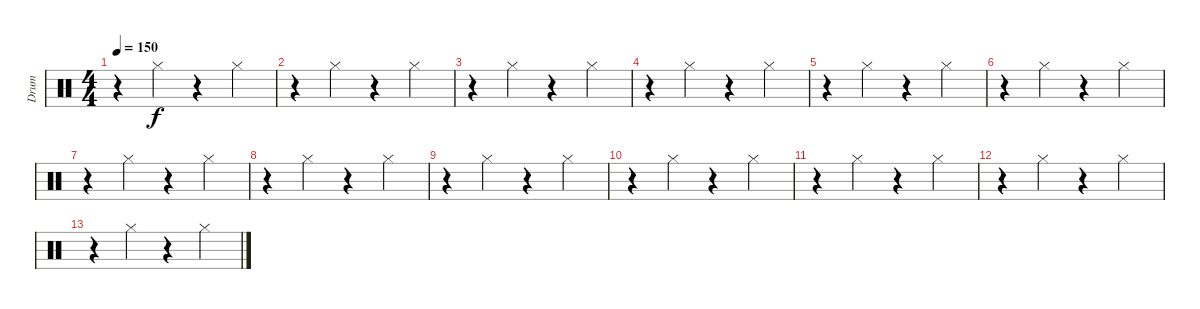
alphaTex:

\track ("Drum" "Drum") {instrument percussion}
\staff {score}
\articulation defaults
\ts (4 4)
\tempo 150
\clef neutral
\ks c
r.4{dy f} "Hi-Hat (closed)".4 r.4 "Hi-Hat (closed)".4 |
r.4 "Hi-Hat (closed)".4 r.4 "Hi-Hat (closed)".4 |
r.4 "Hi-Hat (closed)".4 r.4 "Hi-Hat (closed)".4 |
r.4 "Hi-Hat (closed)".4 r.4 "Hi-Hat (closed)".4 |
r.4 "Hi-Hat (closed)".4 r.4 "Hi-Hat (closed)".4 |
r.4 "Hi-Hat (closed)".4 r.4 "Hi-Hat (closed)".4 |
r.4 "Hi-Hat (closed)".4 r.4 "Hi-Hat (closed)".4 |
r.4 "Hi-Hat (closed)".4 r.4 "Hi-Hat (closed)".4 |
r.4 "Hi-Hat (closed)".4 r.4 "Hi-Hat (closed)".4 |
r.4 "Hi-Hat (closed)".4 r.4 "Hi-Hat (closed)".4 |
r.4 "Hi-Hat (closed)".4 r.4 "Hi-Hat (closed)".4 |
r.4 "Hi-Hat (closed)".4 r.4 "Hi-Hat (closed)".4 |
r.4 "Hi-Hat (closed)".4 r.4 "Hi-Hat (closed)".4
